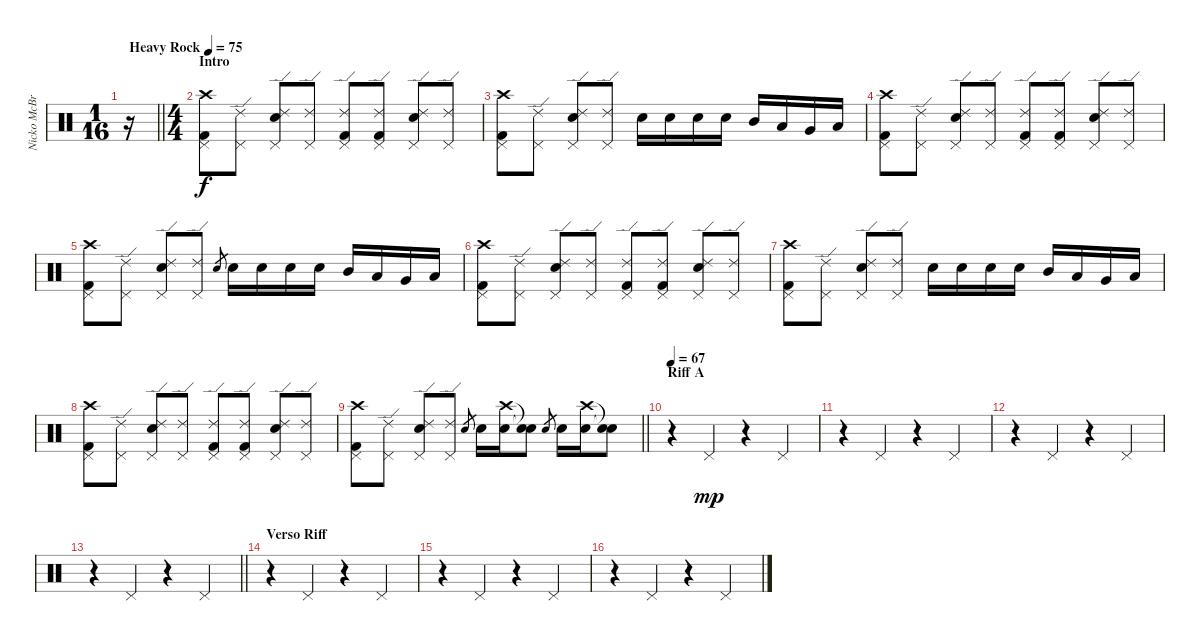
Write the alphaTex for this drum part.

\track ("Nicko McBrain" "Nicko McBr") {instrument percussion}
\staff {score}
\articulation defaults
\ts (1 16)
\tempo (75 "Heavy Rock")
\clef neutral
\barLineRight lightlight
\ks c
r.16{dy f} |
\ts (4 4)
\section ("" "Intro")
("Kick (hit) 2" "Pedal Hi-Hat (hit)" "Crash high (hit)").8 ("Pedal Hi-Hat (hit)" "Ride (edge) 2").8 ("Snare (hit) 2" "Pedal Hi-Hat (hit)" "Ride (edge) 2").8 ("Pedal Hi-Hat (hit)" "Ride (edge) 2").8 ("Kick (hit) 2" "Pedal Hi-Hat (hit)" "Ride (edge) 2").8 ("Kick (hit) 2" "Pedal Hi-Hat (hit)" "Ride (edge) 2").8 ("Snare (hit) 2" "Pedal Hi-Hat (hit)" "Ride (edge) 2").8 ("Pedal Hi-Hat (hit)" "Ride (edge) 2").8 |
("Kick (hit) 2" "Pedal Hi-Hat (hit)" "Crash high (hit)").8 ("Pedal Hi-Hat (hit)" "Ride (edge) 2").8 ("Snare (hit) 2" "Pedal Hi-Hat (hit)" "Ride (edge) 2").8 ("Pedal Hi-Hat (hit)" "Ride (edge) 2").8 "Snare (hit) 2".16 "Snare (hit) 2".16 "Snare (hit) 2".16 "Snare (hit) 2".16 "Mid Tom (hit)".16 "Low Tom (hit)".16 "Very Low Tom (hit)".16 "Low Floor Tom (hit)".16 |
("Kick (hit) 2" "Pedal Hi-Hat (hit)" "Crash high (hit)").8 ("Pedal Hi-Hat (hit)" "Ride (edge) 2").8 ("Snare (hit) 2" "Pedal Hi-Hat (hit)" "Ride (edge) 2").8 ("Pedal Hi-Hat (hit)" "Ride (edge) 2").8 ("Kick (hit) 2" "Pedal Hi-Hat (hit)" "Ride (edge) 2").8 ("Kick (hit) 2" "Pedal Hi-Hat (hit)" "Ride (edge) 2").8 ("Snare (hit) 2" "Pedal Hi-Hat (hit)" "Ride (edge) 2").8 ("Pedal Hi-Hat (hit)" "Ride (edge) 2").8 |
("Kick (hit) 2" "Pedal Hi-Hat (hit)" "Crash high (hit)").8 ("Pedal Hi-Hat (hit)" "Ride (edge) 2").8 ("Snare (hit) 2" "Pedal Hi-Hat (hit)" "Ride (edge) 2").8 ("Pedal Hi-Hat (hit)" "Ride (edge) 2").8 "Snare (hit) 2".8{gr} "Snare (hit) 2".16 "Snare (hit) 2".16 "Snare (hit) 2".16 "Snare (hit) 2".16 "Mid Tom (hit)".16 "Low Tom (hit)".16 "Very Low Tom (hit)".16 "Low Floor Tom (hit)".16 |
("Kick (hit) 2" "Pedal Hi-Hat (hit)" "Crash high (hit)").8 ("Pedal Hi-Hat (hit)" "Ride (edge) 2").8 ("Snare (hit) 2" "Pedal Hi-Hat (hit)" "Ride (edge) 2").8 ("Pedal Hi-Hat (hit)" "Ride (edge) 2").8 ("Kick (hit) 2" "Pedal Hi-Hat (hit)" "Ride (edge) 2").8 ("Kick (hit) 2" "Pedal Hi-Hat (hit)" "Ride (edge) 2").8 ("Snare (hit) 2" "Pedal Hi-Hat (hit)" "Ride (edge) 2").8 ("Pedal Hi-Hat (hit)" "Ride (edge) 2").8 |
("Kick (hit) 2" "Pedal Hi-Hat (hit)" "Crash high (hit)").8 ("Pedal Hi-Hat (hit)" "Ride (edge) 2").8 ("Snare (hit) 2" "Pedal Hi-Hat (hit)" "Ride (edge) 2").8 ("Pedal Hi-Hat (hit)" "Ride (edge) 2").8 "Snare (hit) 2".16 "Snare (hit) 2".16 "Snare (hit) 2".16 "Snare (hit) 2".16 "Mid Tom (hit)".16 "Low Tom (hit)".16 "Very Low Tom (hit)".16 "Low Floor Tom (hit)".16 |
("Kick (hit) 2" "Pedal Hi-Hat (hit)" "Crash high (hit)").8 ("Pedal Hi-Hat (hit)" "Ride (edge) 2").8 ("Snare (hit) 2" "Pedal Hi-Hat (hit)" "Ride (edge) 2").8 ("Pedal Hi-Hat (hit)" "Ride (edge) 2").8 ("Kick (hit) 2" "Pedal Hi-Hat (hit)" "Ride (edge) 2").8 ("Kick (hit) 2" "Pedal Hi-Hat (hit)" "Ride (edge) 2").8 ("Snare (hit) 2" "Pedal Hi-Hat (hit)" "Ride (edge) 2").8 ("Pedal Hi-Hat (hit)" "Ride (edge) 2").8 |
\barLineRight lightlight
("Kick (hit) 2" "Pedal Hi-Hat (hit)" "Crash high (hit)").8 ("Pedal Hi-Hat (hit)" "Ride (edge) 2").8 ("Snare (hit) 2" "Pedal Hi-Hat (hit)" "Ride (edge) 2").8 ("Pedal Hi-Hat (hit)" "Ride (edge) 2").8 "Snare (hit) 2".8{gr} "Snare (hit) 2".16 ("Snare (hit) 2" "Crash high (hit)").16 ("Snare (hit)"{t} "Snare (hit)"{t}).8 "Snare (hit) 2".8{gr} "Snare (hit) 2".16 ("Snare (hit) 2" "Crash high (hit)").16 ("Snare (hit)"{t} "Snare (hit)"{t}).8 |
\section ("" "Riff A")
\tempo 67
r.4 "Pedal Hi-Hat (hit)".4{dy mp} r.4 "Pedal Hi-Hat (hit)".4 |
r.4 "Pedal Hi-Hat (hit)".4 r.4 "Pedal Hi-Hat (hit)".4 |
r.4 "Pedal Hi-Hat (hit)".4 r.4 "Pedal Hi-Hat (hit)".4 |
\barLineRight lightlight
r.4 "Pedal Hi-Hat (hit)".4 r.4 "Pedal Hi-Hat (hit)".4 |
\section ("" "Verso Riff")
r.4 "Pedal Hi-Hat (hit)".4 r.4 "Pedal Hi-Hat (hit)".4 |
r.4 "Pedal Hi-Hat (hit)".4 r.4 "Pedal Hi-Hat (hit)".4 |
r.4 "Pedal Hi-Hat (hit)".4 r.4 "Pedal Hi-Hat (hit)".4
